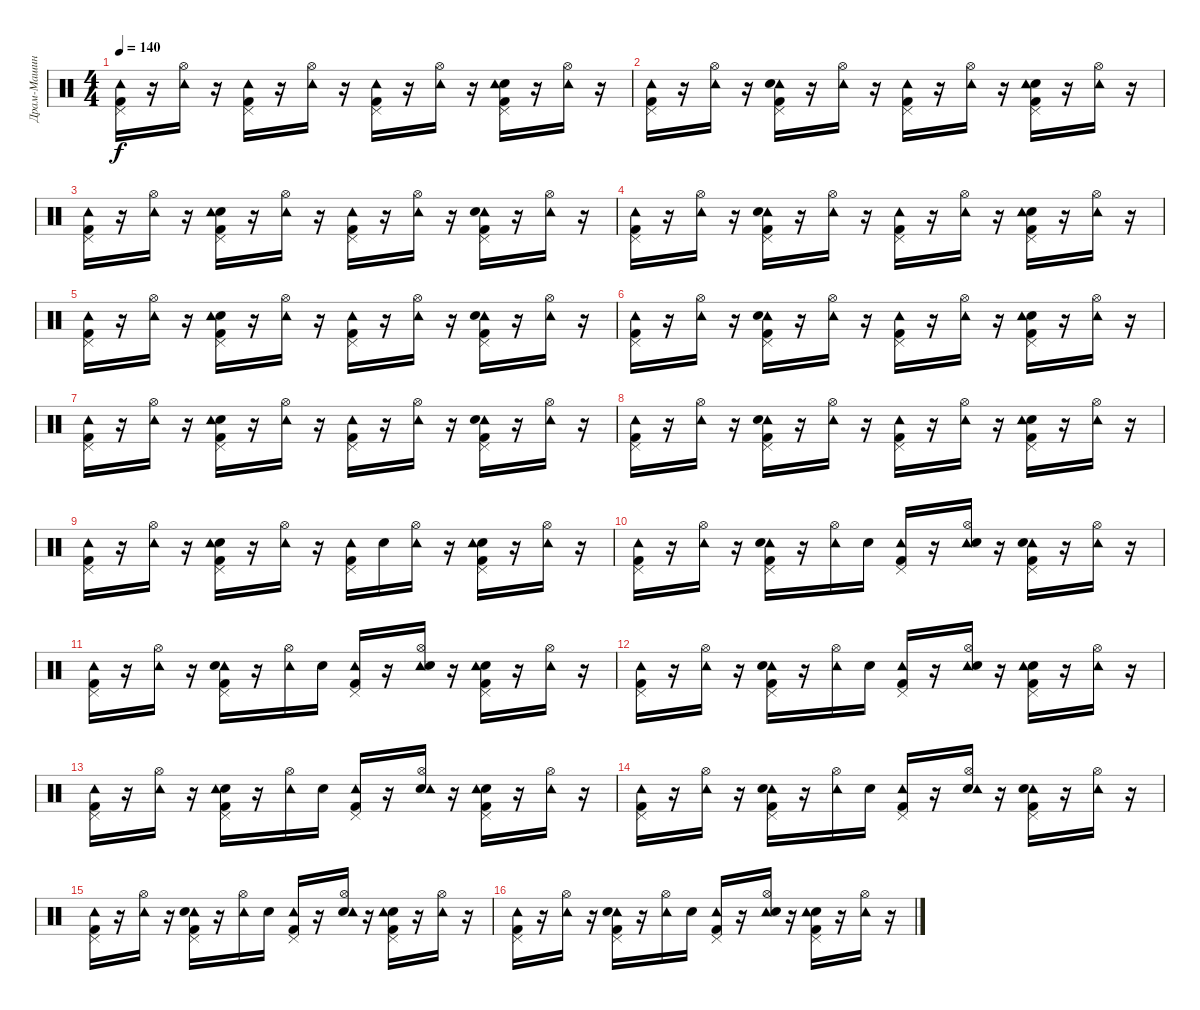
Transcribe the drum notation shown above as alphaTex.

\track ("Драм-Машина" "Драм-Машин") {instrument percussion}
\staff {score}
\articulation defaults
\ts (4 4)
\tempo 140
\clef neutral
\ks c
("Tambourine (hit)" "Kick (hit) 2" "Pedal Hi-Hat (hit)").16{dy f} r.16 ("Tambourine (hit)" "Hi-Hat (open)").16 r.16 ("Pedal Hi-Hat (hit)" "Kick (hit) 2" "Tambourine (hit)").16 r.16 ("Tambourine (hit)" "Hi-Hat (open)").16 r.16 ("Pedal Hi-Hat (hit)" "Kick (hit) 2" "Tambourine (hit)").16 r.16 ("Tambourine (hit)" "Hi-Hat (open)").16 r.16 ("Snare (hit) 2" "Kick (hit) 2" "Pedal Hi-Hat (hit)" "Tambourine (hit)").16 r.16 ("Hi-Hat (open)" "Tambourine (hit)").16 r.16 |
("Pedal Hi-Hat (hit)" "Tambourine (hit)" "Kick (hit) 2").16 r.16 ("Tambourine (hit)" "Hi-Hat (open)").16 r.16 ("Kick (hit) 2" "Tambourine (hit)" "Snare (hit) 2" "Pedal Hi-Hat (hit)").16 r.16 ("Hi-Hat (open)" "Tambourine (hit)").16 r.16 ("Pedal Hi-Hat (hit)" "Tambourine (hit)" "Kick (hit) 2").16 r.16 ("Hi-Hat (open)" "Tambourine (hit)").16 r.16 ("Kick (hit) 2" "Snare (hit) 2" "Pedal Hi-Hat (hit)" "Tambourine (hit)").16 r.16 ("Hi-Hat (open)" "Tambourine (hit)").16 r.16 |
("Pedal Hi-Hat (hit)" "Kick (hit) 2" "Tambourine (hit)").16 r.16 ("Hi-Hat (open)" "Tambourine (hit)").16 r.16 ("Pedal Hi-Hat (hit)" "Kick (hit) 2" "Snare (hit) 2" "Tambourine (hit)").16 r.16 ("Tambourine (hit)" "Hi-Hat (open)").16 r.16 ("Tambourine (hit)" "Pedal Hi-Hat (hit)" "Kick (hit) 2").16 r.16 ("Hi-Hat (open)" "Tambourine (hit)").16 r.16 ("Kick (hit) 2" "Tambourine (hit)" "Snare (hit) 2" "Pedal Hi-Hat (hit)").16 r.16 ("Tambourine (hit)" "Hi-Hat (open)").16 r.16 |
("Pedal Hi-Hat (hit)" "Tambourine (hit)" "Kick (hit) 2").16 r.16 ("Tambourine (hit)" "Hi-Hat (open)").16 r.16 ("Kick (hit) 2" "Tambourine (hit)" "Snare (hit) 2" "Pedal Hi-Hat (hit)").16 r.16 ("Hi-Hat (open)" "Tambourine (hit)").16 r.16 ("Pedal Hi-Hat (hit)" "Tambourine (hit)" "Kick (hit) 2").16 r.16 ("Hi-Hat (open)" "Tambourine (hit)").16 r.16 ("Kick (hit) 2" "Snare (hit) 2" "Pedal Hi-Hat (hit)" "Tambourine (hit)").16 r.16 ("Hi-Hat (open)" "Tambourine (hit)").16 r.16 |
("Pedal Hi-Hat (hit)" "Kick (hit) 2" "Tambourine (hit)").16 r.16 ("Hi-Hat (open)" "Tambourine (hit)").16 r.16 ("Pedal Hi-Hat (hit)" "Kick (hit) 2" "Snare (hit) 2" "Tambourine (hit)").16 r.16 ("Tambourine (hit)" "Hi-Hat (open)").16 r.16 ("Tambourine (hit)" "Pedal Hi-Hat (hit)" "Kick (hit) 2").16 r.16 ("Hi-Hat (open)" "Tambourine (hit)").16 r.16 ("Kick (hit) 2" "Tambourine (hit)" "Snare (hit) 2" "Pedal Hi-Hat (hit)").16 r.16 ("Tambourine (hit)" "Hi-Hat (open)").16 r.16 |
("Pedal Hi-Hat (hit)" "Tambourine (hit)" "Kick (hit) 2").16 r.16 ("Tambourine (hit)" "Hi-Hat (open)").16 r.16 ("Kick (hit) 2" "Tambourine (hit)" "Snare (hit) 2" "Pedal Hi-Hat (hit)").16 r.16 ("Hi-Hat (open)" "Tambourine (hit)").16 r.16 ("Pedal Hi-Hat (hit)" "Tambourine (hit)" "Kick (hit) 2").16 r.16 ("Hi-Hat (open)" "Tambourine (hit)").16 r.16 ("Kick (hit) 2" "Snare (hit) 2" "Pedal Hi-Hat (hit)" "Tambourine (hit)").16 r.16 ("Hi-Hat (open)" "Tambourine (hit)").16 r.16 |
("Pedal Hi-Hat (hit)" "Kick (hit) 2" "Tambourine (hit)").16 r.16 ("Hi-Hat (open)" "Tambourine (hit)").16 r.16 ("Pedal Hi-Hat (hit)" "Kick (hit) 2" "Snare (hit) 2" "Tambourine (hit)").16 r.16 ("Tambourine (hit)" "Hi-Hat (open)").16 r.16 ("Tambourine (hit)" "Pedal Hi-Hat (hit)" "Kick (hit) 2").16 r.16 ("Hi-Hat (open)" "Tambourine (hit)").16 r.16 ("Kick (hit) 2" "Tambourine (hit)" "Snare (hit) 2" "Pedal Hi-Hat (hit)").16 r.16 ("Tambourine (hit)" "Hi-Hat (open)").16 r.16 |
("Pedal Hi-Hat (hit)" "Tambourine (hit)" "Kick (hit) 2").16 r.16 ("Tambourine (hit)" "Hi-Hat (open)").16 r.16 ("Kick (hit) 2" "Tambourine (hit)" "Snare (hit) 2" "Pedal Hi-Hat (hit)").16 r.16 ("Hi-Hat (open)" "Tambourine (hit)").16 r.16 ("Pedal Hi-Hat (hit)" "Tambourine (hit)" "Kick (hit) 2").16 r.16 ("Hi-Hat (open)" "Tambourine (hit)").16 r.16 ("Kick (hit) 2" "Snare (hit) 2" "Pedal Hi-Hat (hit)" "Tambourine (hit)").16 r.16 ("Hi-Hat (open)" "Tambourine (hit)").16 r.16 |
("Kick (hit) 2" "Pedal Hi-Hat (hit)" "Tambourine (hit)").16 r.16 ("Hi-Hat (open)" "Tambourine (hit)").16 r.16 ("Pedal Hi-Hat (hit)" "Kick (hit) 2" "Snare (hit) 2" "Tambourine (hit)").16 r.16 ("Hi-Hat (open)" "Tambourine (hit)").16 r.16 ("Pedal Hi-Hat (hit)" "Tambourine (hit)" "Kick (hit) 2").16 "Snare (hit) 2".16 ("Tambourine (hit)" "Hi-Hat (open)").16 r.16 ("Snare (hit) 2" "Kick (hit) 2" "Tambourine (hit)" "Pedal Hi-Hat (hit)").16 r.16 ("Tambourine (hit)" "Hi-Hat (open)").16 r.16 |
("Tambourine (hit)" "Pedal Hi-Hat (hit)" "Kick (hit) 2").16 r.16 ("Hi-Hat (open)" "Tambourine (hit)").16 r.16 ("Kick (hit) 2" "Tambourine (hit)" "Pedal Hi-Hat (hit)" "Snare (hit) 2").16 r.16 ("Tambourine (hit)" "Hi-Hat (open)").16 "Snare (hit) 2".16 ("Pedal Hi-Hat (hit)" "Tambourine (hit)" "Kick (hit) 2").16 r.16 ("Hi-Hat (open)" "Tambourine (hit)" "Snare (hit) 2").16 r.16 ("Tambourine (hit)" "Kick (hit) 2" "Pedal Hi-Hat (hit)" "Snare (hit) 2").16 r.16 ("Tambourine (hit)" "Hi-Hat (open)").16 r.16 |
("Tambourine (hit)" "Pedal Hi-Hat (hit)" "Kick (hit) 2").16 r.16 ("Tambourine (hit)" "Hi-Hat (open)").16 r.16 ("Tambourine (hit)" "Pedal Hi-Hat (hit)" "Snare (hit) 2" "Kick (hit) 2").16 r.16 ("Hi-Hat (open)" "Tambourine (hit)").16 "Snare (hit) 2".16 ("Pedal Hi-Hat (hit)" "Tambourine (hit)" "Kick (hit) 2").16 r.16 ("Hi-Hat (open)" "Tambourine (hit)" "Snare (hit) 2").16 r.16 ("Snare (hit) 2" "Kick (hit) 2" "Tambourine (hit)" "Pedal Hi-Hat (hit)").16 r.16 ("Tambourine (hit)" "Hi-Hat (open)").16 r.16 |
("Tambourine (hit)" "Kick (hit) 2" "Pedal Hi-Hat (hit)").16 r.16 ("Hi-Hat (open)" "Tambourine (hit)").16 r.16 ("Tambourine (hit)" "Pedal Hi-Hat (hit)" "Kick (hit) 2" "Snare (hit) 2").16 r.16 ("Tambourine (hit)" "Hi-Hat (open)").16 "Snare (hit) 2".16 ("Pedal Hi-Hat (hit)" "Tambourine (hit)" "Kick (hit) 2").16 r.16 ("Hi-Hat (open)" "Tambourine (hit)" "Snare (hit) 2").16 r.16 ("Snare (hit) 2" "Kick (hit) 2" "Tambourine (hit)" "Pedal Hi-Hat (hit)").16 r.16 ("Hi-Hat (open)" "Tambourine (hit)").16 r.16 |
("Kick (hit) 2" "Tambourine (hit)" "Pedal Hi-Hat (hit)").16 r.16 ("Tambourine (hit)" "Hi-Hat (open)").16 r.16 ("Pedal Hi-Hat (hit)" "Kick (hit) 2" "Snare (hit) 2" "Tambourine (hit)").16 r.16 ("Hi-Hat (open)" "Tambourine (hit)").16 "Snare (hit) 2".16 ("Pedal Hi-Hat (hit)" "Kick (hit) 2" "Tambourine (hit)").16 r.16 ("Snare (hit) 2" "Tambourine (hit)" "Hi-Hat (open)").16 r.16 ("Kick (hit) 2" "Snare (hit) 2" "Tambourine (hit)" "Pedal Hi-Hat (hit)").16 r.16 ("Tambourine (hit)" "Hi-Hat (open)").16 r.16 |
("Tambourine (hit)" "Kick (hit) 2" "Pedal Hi-Hat (hit)").16 r.16 ("Tambourine (hit)" "Hi-Hat (open)").16 r.16 ("Tambourine (hit)" "Kick (hit) 2" "Snare (hit) 2" "Pedal Hi-Hat (hit)").16 r.16 ("Hi-Hat (open)" "Tambourine (hit)").16 "Snare (hit) 2".16 ("Pedal Hi-Hat (hit)" "Tambourine (hit)" "Kick (hit) 2").16 r.16 ("Snare (hit) 2" "Tambourine (hit)" "Hi-Hat (open)").16 r.16 ("Pedal Hi-Hat (hit)" "Kick (hit) 2" "Tambourine (hit)" "Snare (hit) 2").16 r.16 ("Tambourine (hit)" "Hi-Hat (open)").16 r.16 |
("Pedal Hi-Hat (hit)" "Kick (hit) 2" "Tambourine (hit)").16 r.16 ("Hi-Hat (open)" "Tambourine (hit)").16 r.16 ("Kick (hit) 2" "Tambourine (hit)" "Pedal Hi-Hat (hit)" "Snare (hit) 2").16 r.16 ("Hi-Hat (open)" "Tambourine (hit)").16 "Snare (hit) 2".16 ("Tambourine (hit)" "Pedal Hi-Hat (hit)" "Kick (hit) 2").16 r.16 ("Snare (hit) 2" "Hi-Hat (open)" "Tambourine (hit)").16 r.16 ("Snare (hit) 2" "Tambourine (hit)" "Kick (hit) 2" "Pedal Hi-Hat (hit)").16 r.16 ("Hi-Hat (open)" "Tambourine (hit)").16 r.16 |
("Tambourine (hit)" "Pedal Hi-Hat (hit)" "Kick (hit) 2").16 r.16 ("Tambourine (hit)" "Hi-Hat (open)").16 r.16 ("Tambourine (hit)" "Kick (hit) 2" "Pedal Hi-Hat (hit)" "Snare (hit) 2").16 r.16 ("Tambourine (hit)" "Hi-Hat (open)").16 "Snare (hit) 2".16 ("Pedal Hi-Hat (hit)" "Kick (hit) 2" "Tambourine (hit)").16 r.16 ("Tambourine (hit)" "Snare (hit) 2" "Hi-Hat (open)").16 r.16 ("Pedal Hi-Hat (hit)" "Snare (hit) 2" "Kick (hit) 2" "Tambourine (hit)").16 r.16 ("Tambourine (hit)" "Hi-Hat (open)").16 r.16
